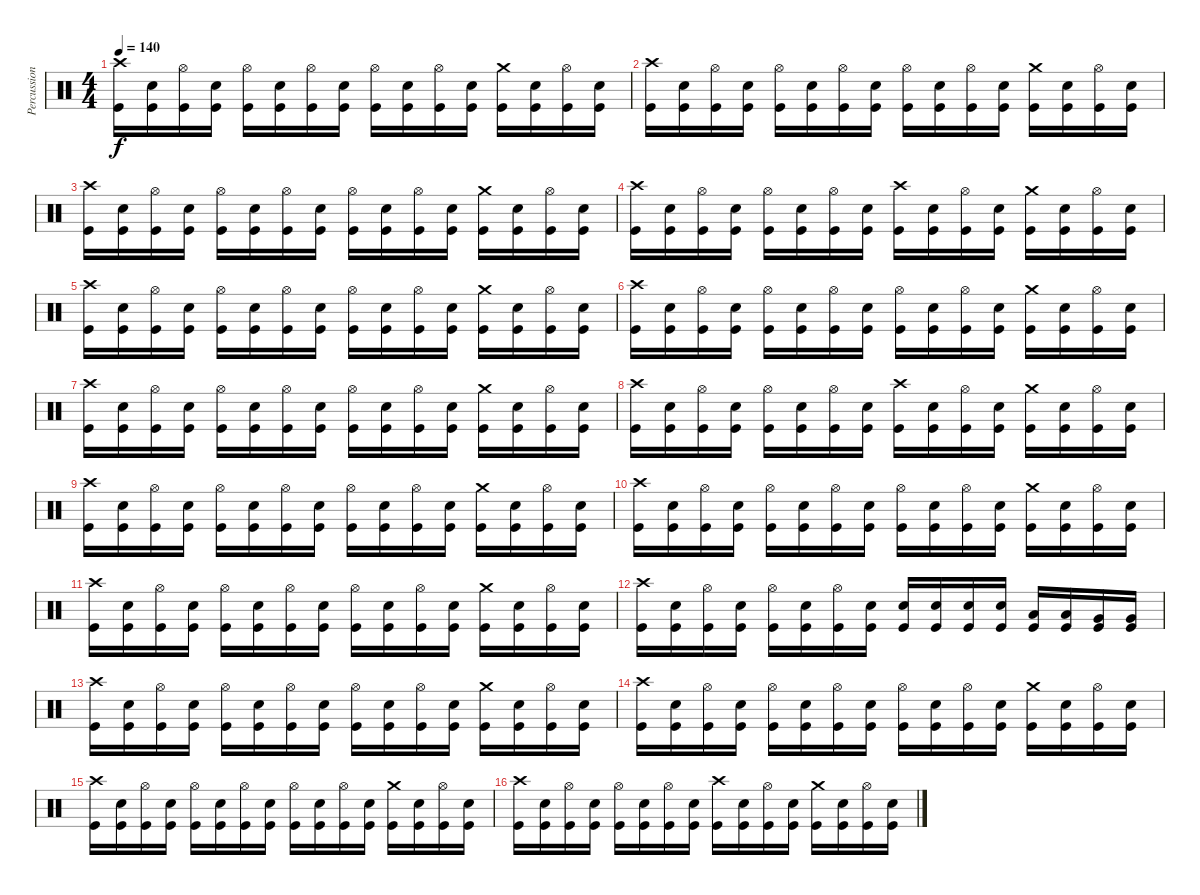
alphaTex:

\track ("Percussion" "Percussion") {instrument percussion}
\staff {score}
\articulation defaults
\ts (4 4)
\tempo 140
\clef neutral
\ks c
("Crash high (hit)" "Kick (hit)").16{dy f} ("Snare (hit) 2" "Kick (hit)").16 ("Hi-Hat (open)" "Kick (hit)").16 ("Snare (hit) 2" "Kick (hit)").16 ("Hi-Hat (open)" "Kick (hit)").16 ("Snare (hit) 2" "Kick (hit)").16 ("Hi-Hat (open)" "Kick (hit)").16 ("Snare (hit) 2" "Kick (hit)").16 ("Hi-Hat (open)" "Kick (hit)").16 ("Snare (hit) 2" "Kick (hit)").16 ("Hi-Hat (open)" "Kick (hit)").16 ("Snare (hit) 2" "Kick (hit)").16 ("Crash medium (hit)" "Kick (hit)").16 ("Snare (hit) 2" "Kick (hit)").16 ("Hi-Hat (open)" "Kick (hit)").16 ("Snare (hit) 2" "Kick (hit)").16 |
("Crash high (hit)" "Kick (hit)").16 ("Snare (hit) 2" "Kick (hit)").16 ("Hi-Hat (open)" "Kick (hit)").16 ("Snare (hit) 2" "Kick (hit)").16 ("Hi-Hat (open)" "Kick (hit)").16 ("Snare (hit) 2" "Kick (hit)").16 ("Hi-Hat (open)" "Kick (hit)").16 ("Snare (hit) 2" "Kick (hit)").16 ("Hi-Hat (open)" "Kick (hit)").16 ("Snare (hit) 2" "Kick (hit)").16 ("Hi-Hat (open)" "Kick (hit)").16 ("Snare (hit) 2" "Kick (hit)").16 ("Crash medium (hit)" "Kick (hit)").16 ("Snare (hit) 2" "Kick (hit)").16 ("Hi-Hat (open)" "Kick (hit)").16 ("Snare (hit) 2" "Kick (hit)").16 |
("Crash high (hit)" "Kick (hit)").16 ("Snare (hit) 2" "Kick (hit)").16 ("Hi-Hat (open)" "Kick (hit)").16 ("Snare (hit) 2" "Kick (hit)").16 ("Hi-Hat (open)" "Kick (hit)").16 ("Snare (hit) 2" "Kick (hit)").16 ("Hi-Hat (open)" "Kick (hit)").16 ("Snare (hit) 2" "Kick (hit)").16 ("Hi-Hat (open)" "Kick (hit)").16 ("Snare (hit) 2" "Kick (hit)").16 ("Hi-Hat (open)" "Kick (hit)").16 ("Snare (hit) 2" "Kick (hit)").16 ("Crash medium (hit)" "Kick (hit)").16 ("Snare (hit) 2" "Kick (hit)").16 ("Hi-Hat (open)" "Kick (hit)").16 ("Snare (hit) 2" "Kick (hit)").16 |
("Crash high (hit)" "Kick (hit)").16 ("Snare (hit) 2" "Kick (hit)").16 ("Hi-Hat (open)" "Kick (hit)").16 ("Snare (hit) 2" "Kick (hit)").16 ("Hi-Hat (open)" "Kick (hit)").16 ("Snare (hit) 2" "Kick (hit)").16 ("Hi-Hat (open)" "Kick (hit)").16 ("Snare (hit) 2" "Kick (hit)").16 ("Crash high (hit)" "Kick (hit)").16 ("Snare (hit) 2" "Kick (hit)").16 ("Hi-Hat (open)" "Kick (hit)").16 ("Snare (hit) 2" "Kick (hit)").16 ("Crash medium (hit)" "Kick (hit)").16 ("Snare (hit) 2" "Kick (hit)").16 ("Hi-Hat (open)" "Kick (hit)").16 ("Snare (hit) 2" "Kick (hit)").16 |
("Crash high (hit)" "Kick (hit)").16 ("Snare (hit) 2" "Kick (hit)").16 ("Hi-Hat (open)" "Kick (hit)").16 ("Snare (hit) 2" "Kick (hit)").16 ("Hi-Hat (open)" "Kick (hit)").16 ("Snare (hit) 2" "Kick (hit)").16 ("Hi-Hat (open)" "Kick (hit)").16 ("Snare (hit) 2" "Kick (hit)").16 ("Hi-Hat (open)" "Kick (hit)").16 ("Snare (hit) 2" "Kick (hit)").16 ("Hi-Hat (open)" "Kick (hit)").16 ("Snare (hit) 2" "Kick (hit)").16 ("Crash medium (hit)" "Kick (hit)").16 ("Snare (hit) 2" "Kick (hit)").16 ("Hi-Hat (open)" "Kick (hit)").16 ("Snare (hit) 2" "Kick (hit)").16 |
("Crash high (hit)" "Kick (hit)").16 ("Snare (hit) 2" "Kick (hit)").16 ("Hi-Hat (open)" "Kick (hit)").16 ("Snare (hit) 2" "Kick (hit)").16 ("Hi-Hat (open)" "Kick (hit)").16 ("Snare (hit) 2" "Kick (hit)").16 ("Hi-Hat (open)" "Kick (hit)").16 ("Snare (hit) 2" "Kick (hit)").16 ("Hi-Hat (open)" "Kick (hit)").16 ("Snare (hit) 2" "Kick (hit)").16 ("Hi-Hat (open)" "Kick (hit)").16 ("Snare (hit) 2" "Kick (hit)").16 ("Crash medium (hit)" "Kick (hit)").16 ("Snare (hit) 2" "Kick (hit)").16 ("Hi-Hat (open)" "Kick (hit)").16 ("Snare (hit) 2" "Kick (hit)").16 |
("Crash high (hit)" "Kick (hit)").16 ("Snare (hit) 2" "Kick (hit)").16 ("Hi-Hat (open)" "Kick (hit)").16 ("Snare (hit) 2" "Kick (hit)").16 ("Hi-Hat (open)" "Kick (hit)").16 ("Snare (hit) 2" "Kick (hit)").16 ("Hi-Hat (open)" "Kick (hit)").16 ("Snare (hit) 2" "Kick (hit)").16 ("Hi-Hat (open)" "Kick (hit)").16 ("Snare (hit) 2" "Kick (hit)").16 ("Hi-Hat (open)" "Kick (hit)").16 ("Snare (hit) 2" "Kick (hit)").16 ("Crash medium (hit)" "Kick (hit)").16 ("Snare (hit) 2" "Kick (hit)").16 ("Hi-Hat (open)" "Kick (hit)").16 ("Snare (hit) 2" "Kick (hit)").16 |
("Crash high (hit)" "Kick (hit)").16 ("Snare (hit) 2" "Kick (hit)").16 ("Hi-Hat (open)" "Kick (hit)").16 ("Snare (hit) 2" "Kick (hit)").16 ("Hi-Hat (open)" "Kick (hit)").16 ("Snare (hit) 2" "Kick (hit)").16 ("Hi-Hat (open)" "Kick (hit)").16 ("Snare (hit) 2" "Kick (hit)").16 ("Crash high (hit)" "Kick (hit)").16 ("Snare (hit) 2" "Kick (hit)").16 ("Hi-Hat (open)" "Kick (hit)").16 ("Snare (hit) 2" "Kick (hit)").16 ("Crash medium (hit)" "Kick (hit)").16 ("Snare (hit) 2" "Kick (hit)").16 ("Hi-Hat (open)" "Kick (hit)").16 ("Snare (hit) 2" "Kick (hit)").16 |
("Crash high (hit)" "Kick (hit)").16 ("Snare (hit) 2" "Kick (hit)").16 ("Hi-Hat (open)" "Kick (hit)").16 ("Snare (hit) 2" "Kick (hit)").16 ("Hi-Hat (open)" "Kick (hit)").16 ("Snare (hit) 2" "Kick (hit)").16 ("Hi-Hat (open)" "Kick (hit)").16 ("Snare (hit) 2" "Kick (hit)").16 ("Hi-Hat (open)" "Kick (hit)").16 ("Snare (hit) 2" "Kick (hit)").16 ("Hi-Hat (open)" "Kick (hit)").16 ("Snare (hit) 2" "Kick (hit)").16 ("Crash medium (hit)" "Kick (hit)").16 ("Snare (hit) 2" "Kick (hit)").16 ("Hi-Hat (open)" "Kick (hit)").16 ("Snare (hit) 2" "Kick (hit)").16 |
("Crash high (hit)" "Kick (hit)").16 ("Snare (hit) 2" "Kick (hit)").16 ("Hi-Hat (open)" "Kick (hit)").16 ("Snare (hit) 2" "Kick (hit)").16 ("Hi-Hat (open)" "Kick (hit)").16 ("Snare (hit) 2" "Kick (hit)").16 ("Hi-Hat (open)" "Kick (hit)").16 ("Snare (hit) 2" "Kick (hit)").16 ("Hi-Hat (open)" "Kick (hit)").16 ("Snare (hit) 2" "Kick (hit)").16 ("Hi-Hat (open)" "Kick (hit)").16 ("Snare (hit) 2" "Kick (hit)").16 ("Crash medium (hit)" "Kick (hit)").16 ("Snare (hit) 2" "Kick (hit)").16 ("Hi-Hat (open)" "Kick (hit)").16 ("Snare (hit) 2" "Kick (hit)").16 |
("Crash high (hit)" "Kick (hit)").16 ("Snare (hit) 2" "Kick (hit)").16 ("Hi-Hat (open)" "Kick (hit)").16 ("Snare (hit) 2" "Kick (hit)").16 ("Hi-Hat (open)" "Kick (hit)").16 ("Snare (hit) 2" "Kick (hit)").16 ("Hi-Hat (open)" "Kick (hit)").16 ("Snare (hit) 2" "Kick (hit)").16 ("Hi-Hat (open)" "Kick (hit)").16 ("Snare (hit) 2" "Kick (hit)").16 ("Hi-Hat (open)" "Kick (hit)").16 ("Snare (hit) 2" "Kick (hit)").16 ("Crash medium (hit)" "Kick (hit)").16 ("Snare (hit) 2" "Kick (hit)").16 ("Hi-Hat (open)" "Kick (hit)").16 ("Snare (hit) 2" "Kick (hit)").16 |
("Crash high (hit)" "Kick (hit)").16 ("Snare (hit) 2" "Kick (hit)").16 ("Hi-Hat (open)" "Kick (hit)").16 ("Snare (hit) 2" "Kick (hit)").16 ("Hi-Hat (open)" "Kick (hit)").16 ("Snare (hit) 2" "Kick (hit)").16 ("Hi-Hat (open)" "Kick (hit)").16 ("Snare (hit) 2" "Kick (hit)").16 ("Snare (hit) 2" "Kick (hit)").16 ("Snare (hit) 2" "Kick (hit)").16 ("Snare (hit) 2" "Kick (hit)").16 ("Snare (hit) 2" "Kick (hit)").16 ("Low Tom (hit)" "Kick (hit)").16 ("Low Tom (hit)" "Kick (hit)").16 ("Very Low Tom (hit)" "Kick (hit)").16 ("Very Low Tom (hit)" "Kick (hit)").16 |
("Crash high (hit)" "Kick (hit)").16 ("Snare (hit) 2" "Kick (hit)").16 ("Hi-Hat (open)" "Kick (hit)").16 ("Snare (hit) 2" "Kick (hit)").16 ("Hi-Hat (open)" "Kick (hit)").16 ("Snare (hit) 2" "Kick (hit)").16 ("Hi-Hat (open)" "Kick (hit)").16 ("Snare (hit) 2" "Kick (hit)").16 ("Hi-Hat (open)" "Kick (hit)").16 ("Snare (hit) 2" "Kick (hit)").16 ("Hi-Hat (open)" "Kick (hit)").16 ("Snare (hit) 2" "Kick (hit)").16 ("Crash medium (hit)" "Kick (hit)").16 ("Snare (hit) 2" "Kick (hit)").16 ("Hi-Hat (open)" "Kick (hit)").16 ("Snare (hit) 2" "Kick (hit)").16 |
("Crash high (hit)" "Kick (hit)").16 ("Snare (hit) 2" "Kick (hit)").16 ("Hi-Hat (open)" "Kick (hit)").16 ("Snare (hit) 2" "Kick (hit)").16 ("Hi-Hat (open)" "Kick (hit)").16 ("Snare (hit) 2" "Kick (hit)").16 ("Hi-Hat (open)" "Kick (hit)").16 ("Snare (hit) 2" "Kick (hit)").16 ("Hi-Hat (open)" "Kick (hit)").16 ("Snare (hit) 2" "Kick (hit)").16 ("Hi-Hat (open)" "Kick (hit)").16 ("Snare (hit) 2" "Kick (hit)").16 ("Crash medium (hit)" "Kick (hit)").16 ("Snare (hit) 2" "Kick (hit)").16 ("Hi-Hat (open)" "Kick (hit)").16 ("Snare (hit) 2" "Kick (hit)").16 |
("Crash high (hit)" "Kick (hit)").16 ("Snare (hit) 2" "Kick (hit)").16 ("Hi-Hat (open)" "Kick (hit)").16 ("Snare (hit) 2" "Kick (hit)").16 ("Hi-Hat (open)" "Kick (hit)").16 ("Snare (hit) 2" "Kick (hit)").16 ("Hi-Hat (open)" "Kick (hit)").16 ("Snare (hit) 2" "Kick (hit)").16 ("Hi-Hat (open)" "Kick (hit)").16 ("Snare (hit) 2" "Kick (hit)").16 ("Hi-Hat (open)" "Kick (hit)").16 ("Snare (hit) 2" "Kick (hit)").16 ("Crash medium (hit)" "Kick (hit)").16 ("Snare (hit) 2" "Kick (hit)").16 ("Hi-Hat (open)" "Kick (hit)").16 ("Snare (hit) 2" "Kick (hit)").16 |
("Crash high (hit)" "Kick (hit)").16 ("Snare (hit) 2" "Kick (hit)").16 ("Hi-Hat (open)" "Kick (hit)").16 ("Snare (hit) 2" "Kick (hit)").16 ("Hi-Hat (open)" "Kick (hit)").16 ("Snare (hit) 2" "Kick (hit)").16 ("Hi-Hat (open)" "Kick (hit)").16 ("Snare (hit) 2" "Kick (hit)").16 ("Crash high (hit)" "Kick (hit)").16 ("Snare (hit) 2" "Kick (hit)").16 ("Hi-Hat (open)" "Kick (hit)").16 ("Snare (hit) 2" "Kick (hit)").16 ("Crash medium (hit)" "Kick (hit)").16 ("Snare (hit) 2" "Kick (hit)").16 ("Hi-Hat (open)" "Kick (hit)").16 ("Snare (hit) 2" "Kick (hit)").16
